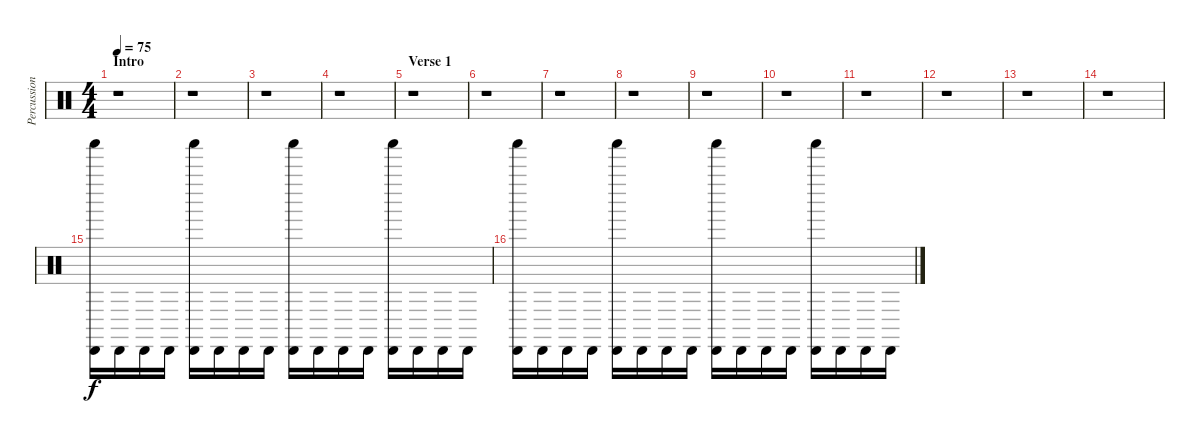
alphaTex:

\track ("Percussion" "Percussion") {instrument percussion}
\staff {score}
\articulation defaults
\ts (4 4)
\section ("" "Intro")
\tempo 75
\clef neutral
\ks c
r.1{dy f} |
r.1 |
r.1 |
r.1 |
\section ("" "Verse 1")
r.1 |
r.1 |
r.1 |
r.1 |
r.1 |
r.1 |
r.1 |
r.1 |
r.1 |
r.1 |
("Shaker (hit)" "Cabasa (hit)").16 "Cabasa (hit)".16 "Cabasa (hit)".16 "Cabasa (hit)".16 ("Shaker (hit)" "Cabasa (hit)").16 "Cabasa (hit)".16 "Cabasa (hit)".16 "Cabasa (hit)".16 ("Shaker (hit)" "Cabasa (hit)").16 "Cabasa (hit)".16 "Cabasa (hit)".16 "Cabasa (hit)".16 ("Shaker (hit)" "Cabasa (hit)").16 "Cabasa (hit)".16 "Cabasa (hit)".16 "Cabasa (hit)".16 |
("Shaker (hit)" "Cabasa (hit)").16 "Cabasa (hit)".16 "Cabasa (hit)".16 "Cabasa (hit)".16 ("Shaker (hit)" "Cabasa (hit)").16 "Cabasa (hit)".16 "Cabasa (hit)".16 "Cabasa (hit)".16 ("Shaker (hit)" "Cabasa (hit)").16 "Cabasa (hit)".16 "Cabasa (hit)".16 "Cabasa (hit)".16 ("Shaker (hit)" "Cabasa (hit)").16 "Cabasa (hit)".16 "Cabasa (hit)".16 "Cabasa (hit)".16
